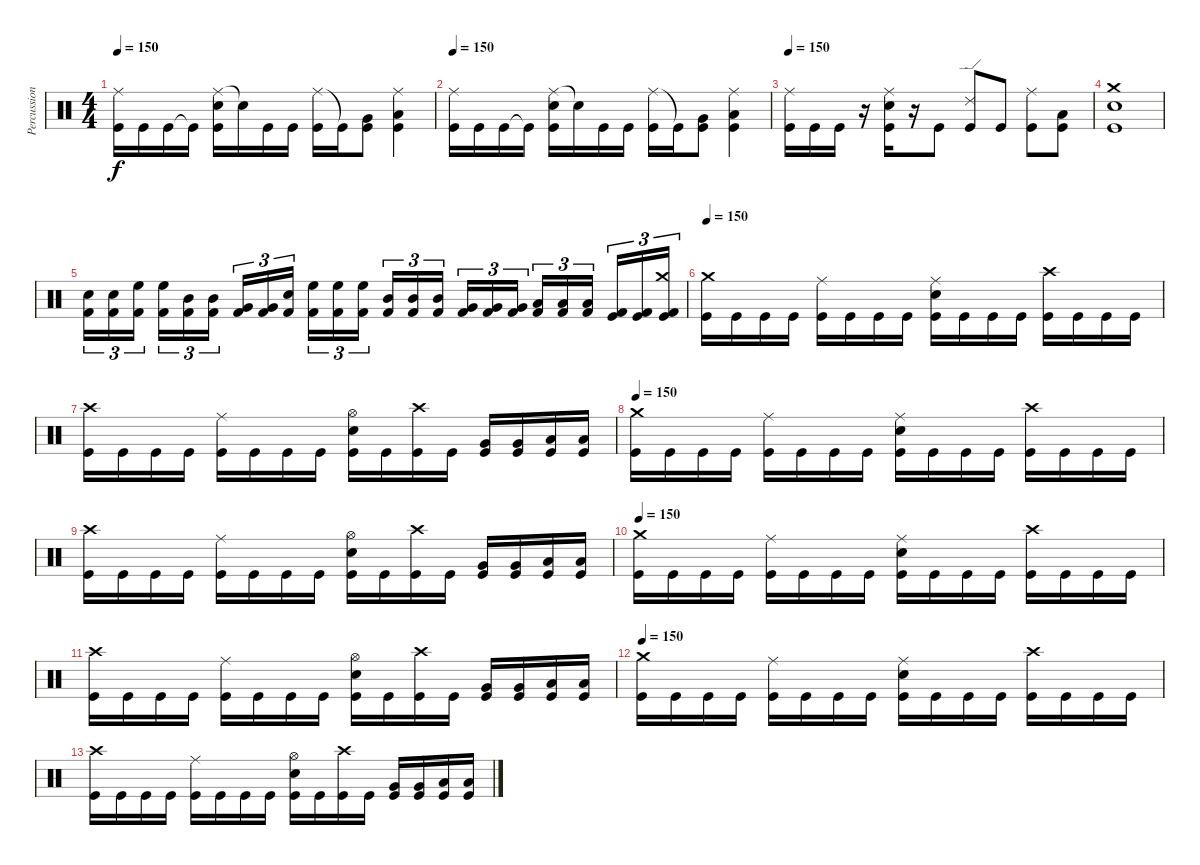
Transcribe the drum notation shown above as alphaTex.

\track ("Percussion" "Percussion") {instrument percussion}
\staff {score}
\articulation defaults
\ts (4 4)
\tempo 150
\clef neutral
\ks c
("Ride (middle)" "Kick (hit)").16{dy f} "Kick (hit)".16 "Kick (hit)".16 "Kick (hit)"{t}.16 ("Ride (middle)" "Electric Snare (hit)" "Kick (hit)").16 "Snare (hit)"{t}.16 "Kick (hit)".16 "Kick (hit)".16 ("Ride (middle)" "Kick (hit)").16 "Kick (hit)"{t}.16 ("Very Low Tom (hit)" "Kick (hit)").8 ("Ride (middle)" "Low Floor Tom (hit)" "Kick (hit)").4 |
\tempo 150
("Ride (middle)" "Kick (hit)").16 "Kick (hit)".16 "Kick (hit)".16 "Kick (hit)"{t}.16 ("Ride (middle)" "Electric Snare (hit)" "Kick (hit)").16 "Snare (hit)"{t}.16 "Kick (hit)".16 "Kick (hit)".16 ("Ride (middle)" "Kick (hit)").16 "Kick (hit)"{t}.16 ("Very Low Tom (hit)" "Kick (hit)").8 ("Ride (middle)" "Low Floor Tom (hit)" "Kick (hit)").4 |
\tempo 150
("Ride (middle)" "Kick (hit)").16 "Kick (hit)".16 "Kick (hit)".16 r.16 ("Ride (middle)" "Electric Snare (hit)" "Kick (hit)").16 r.16 "Kick (hit)".8 ("Ride (edge) 2" "Kick (hit)").8 "Kick (hit)".8 ("Ride (middle)" "Kick (hit)").8 ("Low Floor Tom (hit)" "Kick (hit)").8 |
("Electric Snare (hit)" "Crash medium (hit)" "Kick (hit)").1 |
("Kick (hit) 2" "Electric Snare (hit)").16{tu (3 2)} ("Kick (hit) 2" "Electric Snare (hit)").16{tu (3 2)} ("Kick (hit) 2" "High Floor Tom (hit)").16{tu (3 2) beam splitsecondary} ("Kick (hit) 2" "High Floor Tom (hit)").16{tu (3 2)} ("Kick (hit) 2" "Mid Tom (hit)").16{tu (3 2)} ("Kick (hit) 2" "Mid Tom (hit)").16{tu (3 2)} ("Kick (hit) 2" "Very Low Tom (hit)").16{tu (3 2)} ("Kick (hit) 2" "Very Low Tom (hit)").16{tu (3 2)} ("Kick (hit) 2" "Electric Snare (hit)").16{tu (3 2) beam splitsecondary} ("Kick (hit) 2" "High Floor Tom (hit)").16{tu (3 2)} ("Kick (hit) 2" "High Floor Tom (hit)").16{tu (3 2)} ("Kick (hit) 2" "High Floor Tom (hit)").16{tu (3 2)} ("Kick (hit) 2" "Mid Tom (hit)").16{tu (3 2)} ("Kick (hit) 2" "Mid Tom (hit)").16{tu (3 2)} ("Kick (hit) 2" "Mid Tom (hit)").16{tu (3 2) beam splitsecondary} ("Kick (hit) 2" "Very Low Tom (hit)").16{tu (3 2)} ("Kick (hit) 2" "Very Low Tom (hit)").16{tu (3 2)} ("Kick (hit) 2" "Very Low Tom (hit)").16{tu (3 2)} ("Kick (hit) 2" "Low Floor Tom (hit)").16{tu (3 2)} ("Kick (hit) 2" "Low Floor Tom (hit)").16{tu (3 2)} ("Kick (hit) 2" "Low Floor Tom (hit)").16{tu (3 2) beam splitsecondary} ("Kick (hit) 2" "Kick (hit)").16{tu (3 2)} ("Kick (hit) 2" "Kick (hit)").16{tu (3 2)} ("Kick (hit) 2" "Crash medium (hit)" "Kick (hit)").16{tu (3 2)} |
\tempo 150
("Crash medium (hit)" "Kick (hit)").16 "Kick (hit)".16 "Kick (hit)".16 "Kick (hit)".16 ("Ride (middle)" "Kick (hit)").16 "Kick (hit)".16 "Kick (hit)".16 "Kick (hit)".16 ("Ride (middle)" "Electric Snare (hit)" "Kick (hit)").16 "Kick (hit)".16 "Kick (hit)".16 "Kick (hit)".16 ("Crash high (hit)" "Kick (hit)").16 "Kick (hit)".16 "Kick (hit)".16 "Kick (hit)".16 |
("Crash high (hit)" "Kick (hit)").16 "Kick (hit)".16 "Kick (hit)".16 "Kick (hit)".16 ("Ride (middle)" "Kick (hit)").16 "Kick (hit)".16 "Kick (hit)".16 "Kick (hit)".16 ("Hi-Hat (open)" "Electric Snare (hit)" "Kick (hit)").16 "Kick (hit)".16 ("Crash high (hit)" "Kick (hit)").16 "Kick (hit)".16 ("Very Low Tom (hit)" "Kick (hit)").16 ("Very Low Tom (hit)" "Kick (hit)").16 ("Low Floor Tom (hit)" "Kick (hit)").16 ("Low Floor Tom (hit)" "Kick (hit)").16 |
\tempo 150
("Crash medium (hit)" "Kick (hit)").16 "Kick (hit)".16 "Kick (hit)".16 "Kick (hit)".16 ("Ride (middle)" "Kick (hit)").16 "Kick (hit)".16 "Kick (hit)".16 "Kick (hit)".16 ("Ride (middle)" "Electric Snare (hit)" "Kick (hit)").16 "Kick (hit)".16 "Kick (hit)".16 "Kick (hit)".16 ("Crash high (hit)" "Kick (hit)").16 "Kick (hit)".16 "Kick (hit)".16 "Kick (hit)".16 |
("Crash high (hit)" "Kick (hit)").16 "Kick (hit)".16 "Kick (hit)".16 "Kick (hit)".16 ("Ride (middle)" "Kick (hit)").16 "Kick (hit)".16 "Kick (hit)".16 "Kick (hit)".16 ("Hi-Hat (open)" "Electric Snare (hit)" "Kick (hit)").16 "Kick (hit)".16 ("Crash high (hit)" "Kick (hit)").16 "Kick (hit)".16 ("Very Low Tom (hit)" "Kick (hit)").16 ("Very Low Tom (hit)" "Kick (hit)").16 ("Low Floor Tom (hit)" "Kick (hit)").16 ("Low Floor Tom (hit)" "Kick (hit)").16 |
\tempo 150
("Crash medium (hit)" "Kick (hit)").16 "Kick (hit)".16 "Kick (hit)".16 "Kick (hit)".16 ("Ride (middle)" "Kick (hit)").16 "Kick (hit)".16 "Kick (hit)".16 "Kick (hit)".16 ("Ride (middle)" "Electric Snare (hit)" "Kick (hit)").16 "Kick (hit)".16 "Kick (hit)".16 "Kick (hit)".16 ("Crash high (hit)" "Kick (hit)").16 "Kick (hit)".16 "Kick (hit)".16 "Kick (hit)".16 |
("Crash high (hit)" "Kick (hit)").16 "Kick (hit)".16 "Kick (hit)".16 "Kick (hit)".16 ("Ride (middle)" "Kick (hit)").16 "Kick (hit)".16 "Kick (hit)".16 "Kick (hit)".16 ("Hi-Hat (open)" "Electric Snare (hit)" "Kick (hit)").16 "Kick (hit)".16 ("Crash high (hit)" "Kick (hit)").16 "Kick (hit)".16 ("Very Low Tom (hit)" "Kick (hit)").16 ("Very Low Tom (hit)" "Kick (hit)").16 ("Low Floor Tom (hit)" "Kick (hit)").16 ("Low Floor Tom (hit)" "Kick (hit)").16 |
\tempo 150
("Crash medium (hit)" "Kick (hit)").16 "Kick (hit)".16 "Kick (hit)".16 "Kick (hit)".16 ("Ride (middle)" "Kick (hit)").16 "Kick (hit)".16 "Kick (hit)".16 "Kick (hit)".16 ("Ride (middle)" "Electric Snare (hit)" "Kick (hit)").16 "Kick (hit)".16 "Kick (hit)".16 "Kick (hit)".16 ("Crash high (hit)" "Kick (hit)").16 "Kick (hit)".16 "Kick (hit)".16 "Kick (hit)".16 |
("Crash high (hit)" "Kick (hit)").16 "Kick (hit)".16 "Kick (hit)".16 "Kick (hit)".16 ("Ride (middle)" "Kick (hit)").16 "Kick (hit)".16 "Kick (hit)".16 "Kick (hit)".16 ("Hi-Hat (open)" "Electric Snare (hit)" "Kick (hit)").16 "Kick (hit)".16 ("Crash high (hit)" "Kick (hit)").16 "Kick (hit)".16 ("Very Low Tom (hit)" "Kick (hit)").16 ("Very Low Tom (hit)" "Kick (hit)").16 ("Low Floor Tom (hit)" "Kick (hit)").16 ("Low Floor Tom (hit)" "Kick (hit)").16
